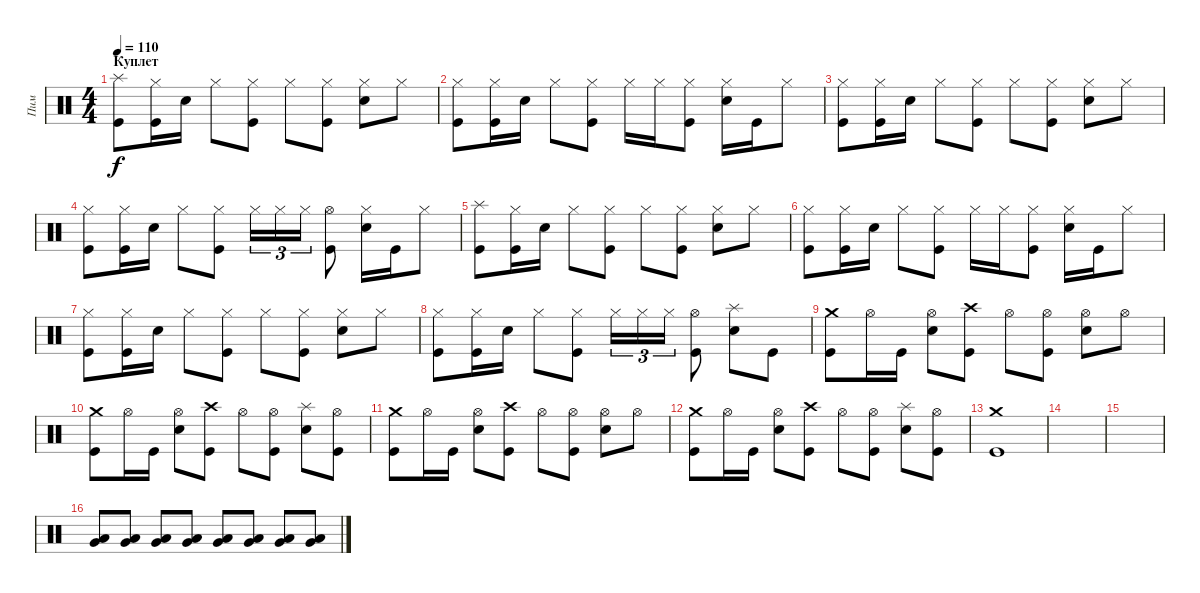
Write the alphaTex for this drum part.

\track ("Пим" "Пим") {instrument percussion}
\staff {score}
\articulation defaults
\ts (4 4)
\section ("" "Куплет")
\tempo 110
\clef neutral
\ks c
("Splash (hit)" "Kick (hit)").8{dy f} ("Hi-Hat (closed)" "Kick (hit)").16 "Snare (hit) 2".16 "Hi-Hat (closed)".8 ("Hi-Hat (closed)" "Kick (hit)").8 "Hi-Hat (closed)".8 ("Hi-Hat (closed)" "Kick (hit)").8 ("Hi-Hat (closed)" "Snare (hit) 2").8 "Hi-Hat (closed)".8 |
("Hi-Hat (closed)" "Kick (hit)").8 ("Hi-Hat (closed)" "Kick (hit)").16 "Snare (hit) 2".16 "Hi-Hat (closed)".8 ("Hi-Hat (closed)" "Kick (hit)").8 "Hi-Hat (closed)".16 "Hi-Hat (closed)".16 ("Hi-Hat (closed)" "Kick (hit)").8 ("Hi-Hat (closed)" "Snare (hit) 2").16 "Kick (hit)".16 "Hi-Hat (closed)".8 |
("Hi-Hat (closed)" "Kick (hit)").8 ("Hi-Hat (closed)" "Kick (hit)").16 "Snare (hit) 2".16 "Hi-Hat (closed)".8 ("Hi-Hat (closed)" "Kick (hit)").8 "Hi-Hat (closed)".8 ("Hi-Hat (closed)" "Kick (hit)").8 ("Hi-Hat (closed)" "Snare (hit) 2").8 "Hi-Hat (closed)".8 |
("Hi-Hat (closed)" "Kick (hit)").8 ("Hi-Hat (closed)" "Kick (hit)").16 "Snare (hit) 2".16 "Hi-Hat (closed)".8 ("Hi-Hat (closed)" "Kick (hit)").8 "Hi-Hat (closed)".16{tu (3 2)} "Hi-Hat (closed)".16{tu (3 2)} "Hi-Hat (closed)".16{tu (3 2)} ("Hi-Hat (open)" "Kick (hit)").8 ("Hi-Hat (closed)" "Snare (hit) 2").16 "Kick (hit)".16 "Hi-Hat (closed)".8 |
("Splash (hit)" "Kick (hit)").8 ("Hi-Hat (closed)" "Kick (hit)").16 "Snare (hit) 2".16 "Hi-Hat (closed)".8 ("Hi-Hat (closed)" "Kick (hit)").8 "Hi-Hat (closed)".8 ("Hi-Hat (closed)" "Kick (hit)").8 ("Hi-Hat (closed)" "Snare (hit) 2").8 "Hi-Hat (closed)".8 |
("Hi-Hat (closed)" "Kick (hit)").8 ("Hi-Hat (closed)" "Kick (hit)").16 "Snare (hit) 2".16 "Hi-Hat (closed)".8 ("Hi-Hat (closed)" "Kick (hit)").8 "Hi-Hat (closed)".16 "Hi-Hat (closed)".16 ("Hi-Hat (closed)" "Kick (hit)").8 ("Hi-Hat (closed)" "Snare (hit) 2").16 "Kick (hit)".16 "Hi-Hat (closed)".8 |
("Hi-Hat (closed)" "Kick (hit)").8 ("Hi-Hat (closed)" "Kick (hit)").16 "Snare (hit) 2".16 "Hi-Hat (closed)".8 ("Hi-Hat (closed)" "Kick (hit)").8 "Hi-Hat (closed)".8 ("Hi-Hat (closed)" "Kick (hit)").8 ("Hi-Hat (closed)" "Snare (hit) 2").8 "Hi-Hat (closed)".8 |
("Hi-Hat (closed)" "Kick (hit)").8 ("Hi-Hat (closed)" "Kick (hit)").16 "Snare (hit) 2".16 "Hi-Hat (closed)".8 ("Hi-Hat (closed)" "Kick (hit)").8 "Hi-Hat (closed)".16{tu (3 2)} "Hi-Hat (closed)".16{tu (3 2)} "Hi-Hat (closed)".16{tu (3 2)} ("Hi-Hat (open)" "Kick (hit)").8 ("Splash (hit)" "Snare (hit) 2").8 "Kick (hit)".8 |
("Crash medium (hit)" "Kick (hit)").8 "Hi-Hat (open)".16 "Kick (hit)".16 ("Hi-Hat (open)" "Snare (hit) 2").8 ("Crash high (hit)" "Kick (hit)").8 "Hi-Hat (open)".8 ("Hi-Hat (open)" "Kick (hit)").8 ("Hi-Hat (open)" "Snare (hit) 2").8 "Hi-Hat (open)".8 |
("Crash medium (hit)" "Kick (hit)").8 "Hi-Hat (open)".16 "Kick (hit)".16 ("Hi-Hat (open)" "Snare (hit) 2").8 ("Crash high (hit)" "Kick (hit)").8 "Hi-Hat (open)".8 ("Hi-Hat (open)" "Kick (hit)").8 ("Splash (hit)" "Snare (hit) 2").8 ("Hi-Hat (open)" "Kick (hit)").8 |
("Crash medium (hit)" "Kick (hit)").8 "Hi-Hat (open)".16 "Kick (hit)".16 ("Hi-Hat (open)" "Snare (hit) 2").8 ("Crash high (hit)" "Kick (hit)").8 "Hi-Hat (open)".8 ("Hi-Hat (open)" "Kick (hit)").8 ("Hi-Hat (open)" "Snare (hit) 2").8 "Hi-Hat (open)".8 |
("Crash medium (hit)" "Kick (hit)").8 "Hi-Hat (open)".16 "Kick (hit)".16 ("Hi-Hat (open)" "Snare (hit) 2").8 ("Crash high (hit)" "Kick (hit)").8 "Hi-Hat (open)".8 ("Hi-Hat (open)" "Kick (hit)").8 ("Splash (hit)" "Snare (hit) 2").8 ("Hi-Hat (open)" "Kick (hit)").8 |
("Crash medium (hit)" "Kick (hit)").1 |
|
|
("Low Tom (hit)" "Very Low Tom (hit)").8 ("Low Tom (hit)" "Very Low Tom (hit)").8 ("Low Tom (hit)" "Very Low Tom (hit)").8 ("Low Tom (hit)" "Very Low Tom (hit)").8 ("Low Tom (hit)" "Very Low Tom (hit)").8 ("Low Tom (hit)" "Very Low Tom (hit)").8 ("Low Tom (hit)" "Very Low Tom (hit)").8 ("Low Tom (hit)" "Very Low Tom (hit)").8
